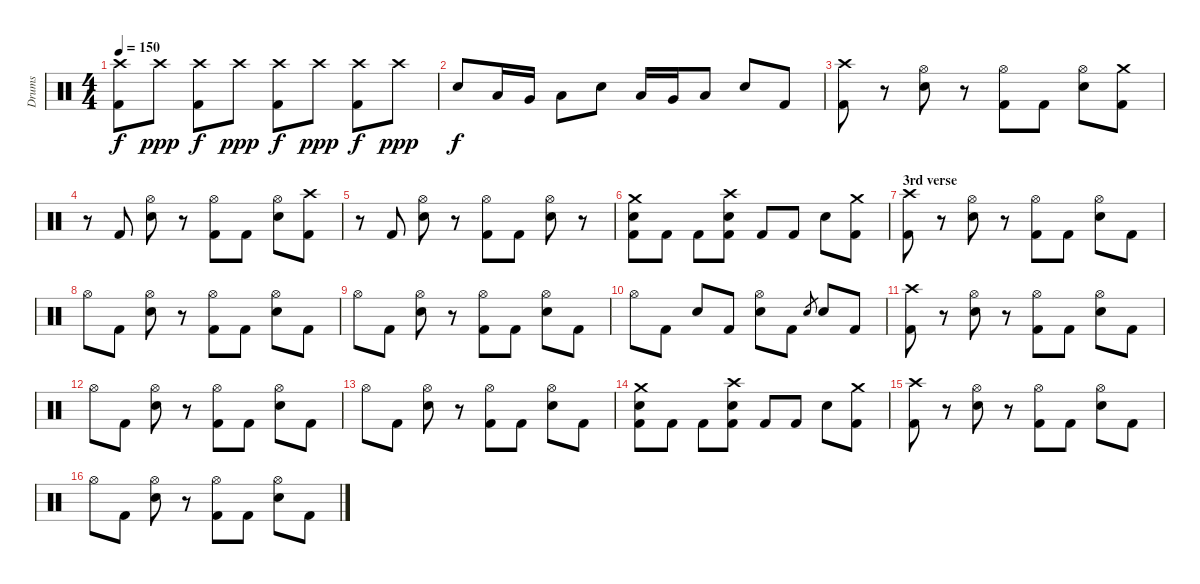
\track ("Drums" "Drums") {instrument percussion}
\staff {score}
\articulation defaults
\ts (4 4)
\tempo 150
\clef neutral
\ks c
("Crash high (hit)" "Kick (hit) 2").8{dy f} "Crash high (hit)".8{dy ppp} ("Crash high (hit)" "Kick (hit) 2").8{dy f} "Crash high (hit)".8{dy ppp} ("Crash high (hit)" "Kick (hit) 2").8{dy f} "Crash high (hit)".8{dy ppp} ("Crash high (hit)" "Kick (hit) 2").8{dy f} "Crash high (hit)".8{dy ppp} |
"Snare (hit) 2".8{dy f} "Low Tom (hit)".16 "Very Low Tom (hit)".16 "Low Floor Tom (hit)".8 "Snare (hit) 2".8 "Low Tom (hit)".16 "Very Low Tom (hit)".16 "Low Floor Tom (hit)".8 "Snare (hit) 2".8 "Kick (hit) 2".8 |
("Crash high (hit)" "Kick (hit) 2").8 r.8 ("Hi-Hat (open)" "Snare (hit) 2").8 r.8 ("Hi-Hat (open)" "Kick (hit) 2").8 "Kick (hit) 2".8 ("Hi-Hat (open)" "Snare (hit) 2").8 ("Crash medium (hit)" "Kick (hit) 2").8 |
r.8 "Kick (hit) 2".8 ("Hi-Hat (open)" "Snare (hit) 2").8 r.8 ("Hi-Hat (open)" "Kick (hit) 2").8 "Kick (hit) 2".8 ("Hi-Hat (open)" "Snare (hit) 2").8 ("Crash high (hit)" "Kick (hit) 2").8 |
r.8 "Kick (hit) 2".8 ("Hi-Hat (open)" "Snare (hit) 2").8 r.8 ("Hi-Hat (open)" "Kick (hit) 2").8 "Kick (hit) 2".8 ("Hi-Hat (open)" "Snare (hit) 2").8 r.8 |
("Crash medium (hit)" "Snare (hit) 2" "Kick (hit) 2").8 "Kick (hit) 2".8 "Kick (hit) 2".8 ("Crash high (hit)" "Snare (hit) 2" "Kick (hit) 2").8 "Kick (hit) 2".8 "Kick (hit) 2".8 "Snare (hit) 2".8 ("Crash medium (hit)" "Kick (hit) 2").8 |
\section ("" "3rd verse")
("Crash high (hit)" "Kick (hit) 2").8 r.8 ("Hi-Hat (open)" "Snare (hit) 2").8 r.8 ("Hi-Hat (open)" "Kick (hit) 2").8 "Kick (hit) 2".8 ("Hi-Hat (open)" "Snare (hit) 2").8 "Kick (hit) 2".8 |
"Hi-Hat (open)".8 "Kick (hit) 2".8 ("Hi-Hat (open)" "Snare (hit) 2").8 r.8 ("Hi-Hat (open)" "Kick (hit) 2").8 "Kick (hit) 2".8 ("Hi-Hat (open)" "Snare (hit) 2").8 "Kick (hit) 2".8 |
"Hi-Hat (open)".8 "Kick (hit) 2".8 ("Hi-Hat (open)" "Snare (hit) 2").8 r.8 ("Hi-Hat (open)" "Kick (hit) 2").8 "Kick (hit) 2".8 ("Hi-Hat (open)" "Snare (hit) 2").8 "Kick (hit) 2".8 |
"Hi-Hat (open)".8 "Kick (hit) 2".8 "Snare (hit) 2".8 "Kick (hit) 2".8 ("Hi-Hat (open)" "Snare (hit) 2").8 "Kick (hit) 2".8 "Snare (hit) 2".8{gr} "Snare (hit) 2".8 "Kick (hit) 2".8 |
("Crash high (hit)" "Kick (hit) 2").8 r.8 ("Hi-Hat (open)" "Snare (hit) 2").8 r.8 ("Hi-Hat (open)" "Kick (hit) 2").8 "Kick (hit) 2".8 ("Hi-Hat (open)" "Snare (hit) 2").8 "Kick (hit) 2".8 |
"Hi-Hat (open)".8 "Kick (hit) 2".8 ("Hi-Hat (open)" "Snare (hit) 2").8 r.8 ("Hi-Hat (open)" "Kick (hit) 2").8 "Kick (hit) 2".8 ("Hi-Hat (open)" "Snare (hit) 2").8 "Kick (hit) 2".8 |
"Hi-Hat (open)".8 "Kick (hit) 2".8 ("Hi-Hat (open)" "Snare (hit) 2").8 r.8 ("Hi-Hat (open)" "Kick (hit) 2").8 "Kick (hit) 2".8 ("Hi-Hat (open)" "Snare (hit) 2").8 "Kick (hit) 2".8 |
("Crash medium (hit)" "Snare (hit) 2" "Kick (hit) 2").8 "Kick (hit) 2".8 "Kick (hit) 2".8 ("Crash high (hit)" "Snare (hit) 2" "Kick (hit) 2").8 "Kick (hit) 2".8 "Kick (hit) 2".8 "Snare (hit) 2".8 ("Crash medium (hit)" "Kick (hit) 2").8 |
("Crash high (hit)" "Kick (hit) 2").8 r.8 ("Hi-Hat (open)" "Snare (hit) 2").8 r.8 ("Hi-Hat (open)" "Kick (hit) 2").8 "Kick (hit) 2".8 ("Hi-Hat (open)" "Snare (hit) 2").8 "Kick (hit) 2".8 |
"Hi-Hat (open)".8 "Kick (hit) 2".8 ("Hi-Hat (open)" "Snare (hit) 2").8 r.8 ("Hi-Hat (open)" "Kick (hit) 2").8 "Kick (hit) 2".8 ("Hi-Hat (open)" "Snare (hit) 2").8 "Kick (hit) 2".8
